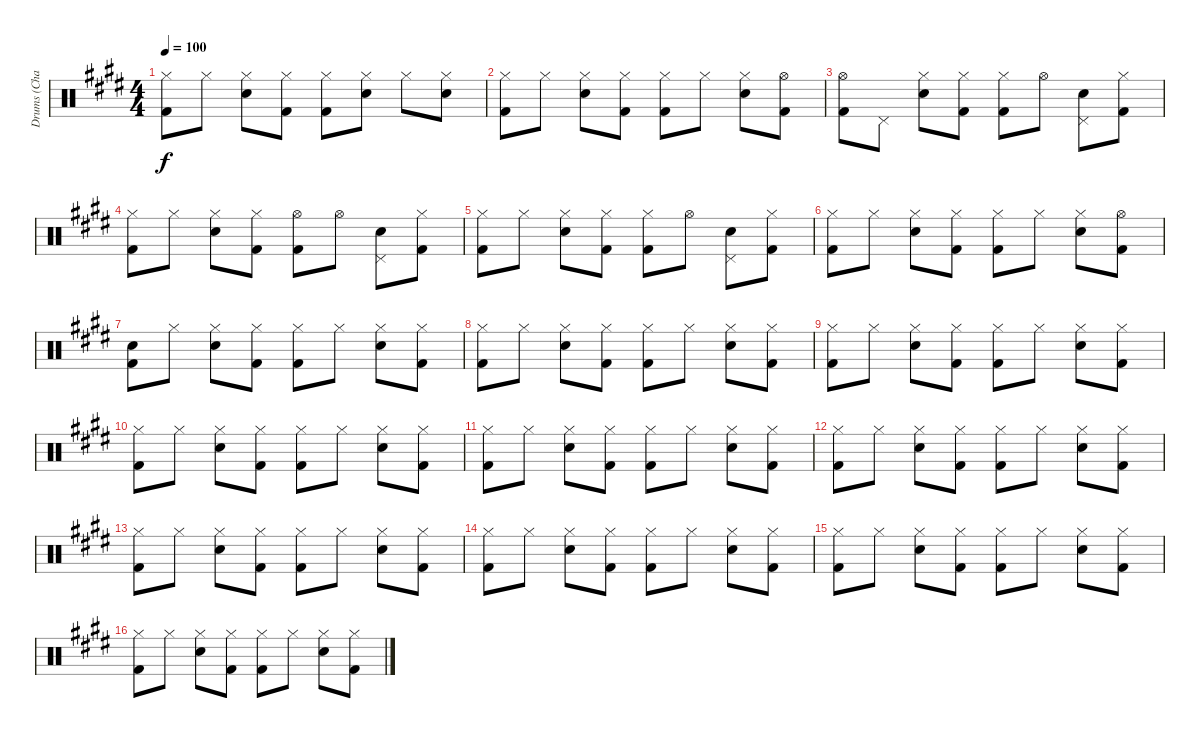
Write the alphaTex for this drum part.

\track ("Drums (Charlie)" "Drums (Cha") {instrument percussion}
\staff {score}
\articulation defaults
\ts (4 4)
\tempo 100
\clef neutral
\ks c#minor
("Hi-Hat (closed)" "Kick (hit) 2").8{dy f} "Hi-Hat (closed)".8 ("Hi-Hat (closed)" "Snare (hit) 2").8 ("Hi-Hat (closed)" "Kick (hit) 2").8 ("Hi-Hat (closed)" "Kick (hit) 2").8 ("Hi-Hat (closed)" "Snare (hit) 2").8 "Hi-Hat (closed)".8 ("Hi-Hat (closed)" "Snare (hit) 2").8 |
\ks e
("Hi-Hat (closed)" "Kick (hit) 2").8 "Hi-Hat (closed)".8 ("Hi-Hat (closed)" "Snare (hit) 2").8 ("Hi-Hat (closed)" "Kick (hit) 2").8 ("Hi-Hat (closed)" "Kick (hit) 2").8 "Hi-Hat (closed)".8 ("Hi-Hat (closed)" "Snare (hit) 2").8 ("Hi-Hat (open)" "Kick (hit) 2").8 |
\ks c#minor
("Hi-Hat (open)" "Kick (hit) 2").8 "Pedal Hi-Hat (hit)".8 ("Hi-Hat (closed)" "Snare (hit) 2").8 ("Hi-Hat (closed)" "Kick (hit) 2").8 ("Hi-Hat (closed)" "Kick (hit) 2").8 "Hi-Hat (open)".8 ("Pedal Hi-Hat (hit)" "Snare (hit) 2").8 ("Hi-Hat (closed)" "Kick (hit) 2").8 |
("Hi-Hat (closed)" "Kick (hit) 2").8 "Hi-Hat (closed)".8 ("Hi-Hat (closed)" "Snare (hit) 2").8 ("Hi-Hat (closed)" "Kick (hit) 2").8 ("Hi-Hat (open)" "Kick (hit) 2").8 "Hi-Hat (open)".8 ("Pedal Hi-Hat (hit)" "Snare (hit) 2").8 ("Hi-Hat (closed)" "Kick (hit) 2").8 |
\ks e
("Hi-Hat (closed)" "Kick (hit) 2").8 "Hi-Hat (closed)".8 ("Hi-Hat (closed)" "Snare (hit) 2").8 ("Hi-Hat (closed)" "Kick (hit) 2").8 ("Hi-Hat (closed)" "Kick (hit) 2").8 "Hi-Hat (open)".8 ("Pedal Hi-Hat (hit)" "Snare (hit) 2").8 ("Hi-Hat (closed)" "Kick (hit) 2").8 |
\ks c#minor
("Hi-Hat (closed)" "Kick (hit) 2").8 "Hi-Hat (closed)".8 ("Hi-Hat (closed)" "Snare (hit) 2").8 ("Hi-Hat (closed)" "Kick (hit) 2").8 ("Hi-Hat (closed)" "Kick (hit) 2").8 "Hi-Hat (closed)".8 ("Hi-Hat (closed)" "Snare (hit) 2").8 ("Hi-Hat (open)" "Kick (hit) 2").8 |
("Snare (hit)" "Kick (hit) 2").8 "Hi-Hat (closed)".8 ("Hi-Hat (closed)" "Snare (hit) 2").8 ("Hi-Hat (closed)" "Kick (hit) 2").8 ("Hi-Hat (closed)" "Kick (hit) 2").8 "Hi-Hat (closed)".8 ("Hi-Hat (closed)" "Snare (hit) 2").8 ("Hi-Hat (closed)" "Kick (hit) 2").8 |
\ks e
("Hi-Hat (closed)" "Kick (hit) 2").8 "Hi-Hat (closed)".8 ("Hi-Hat (closed)" "Snare (hit) 2").8 ("Hi-Hat (closed)" "Kick (hit) 2").8 ("Hi-Hat (closed)" "Kick (hit) 2").8 "Hi-Hat (closed)".8 ("Hi-Hat (closed)" "Snare (hit) 2").8 ("Hi-Hat (closed)" "Kick (hit) 2").8 |
\ks c#minor
("Hi-Hat (closed)" "Kick (hit) 2").8 "Hi-Hat (closed)".8 ("Hi-Hat (closed)" "Snare (hit) 2").8 ("Hi-Hat (closed)" "Kick (hit) 2").8 ("Hi-Hat (closed)" "Kick (hit) 2").8 "Hi-Hat (closed)".8 ("Hi-Hat (closed)" "Snare (hit) 2").8 ("Hi-Hat (closed)" "Kick (hit) 2").8 |
("Hi-Hat (closed)" "Kick (hit) 2").8 "Hi-Hat (closed)".8 ("Hi-Hat (closed)" "Snare (hit) 2").8 ("Hi-Hat (closed)" "Kick (hit) 2").8 ("Hi-Hat (closed)" "Kick (hit) 2").8 "Hi-Hat (closed)".8 ("Hi-Hat (closed)" "Snare (hit) 2").8 ("Hi-Hat (closed)" "Kick (hit) 2").8 |
\ks e
("Hi-Hat (closed)" "Kick (hit) 2").8 "Hi-Hat (closed)".8 ("Hi-Hat (closed)" "Snare (hit) 2").8 ("Hi-Hat (closed)" "Kick (hit) 2").8 ("Hi-Hat (closed)" "Kick (hit) 2").8 "Hi-Hat (closed)".8 ("Hi-Hat (closed)" "Snare (hit) 2").8 ("Hi-Hat (closed)" "Kick (hit) 2").8 |
\ks c#minor
("Hi-Hat (closed)" "Kick (hit) 2").8{volume 2} "Hi-Hat (closed)".8 ("Hi-Hat (closed)" "Snare (hit) 2").8 ("Hi-Hat (closed)" "Kick (hit) 2").8 ("Hi-Hat (closed)" "Kick (hit) 2").8 "Hi-Hat (closed)".8 ("Hi-Hat (closed)" "Snare (hit) 2").8 ("Hi-Hat (closed)" "Kick (hit) 2").8 |
("Hi-Hat (closed)" "Kick (hit) 2").8 "Hi-Hat (closed)".8 ("Hi-Hat (closed)" "Snare (hit) 2").8 ("Hi-Hat (closed)" "Kick (hit) 2").8 ("Hi-Hat (closed)" "Kick (hit) 2").8 "Hi-Hat (closed)".8 ("Hi-Hat (closed)" "Snare (hit) 2").8 ("Hi-Hat (closed)" "Kick (hit) 2").8 |
\ks e
("Hi-Hat (closed)" "Kick (hit) 2").8 "Hi-Hat (closed)".8 ("Hi-Hat (closed)" "Snare (hit) 2").8 ("Hi-Hat (closed)" "Kick (hit) 2").8 ("Hi-Hat (closed)" "Kick (hit) 2").8 "Hi-Hat (closed)".8 ("Hi-Hat (closed)" "Snare (hit) 2").8 ("Hi-Hat (closed)" "Kick (hit) 2").8 |
\ks c#minor
("Hi-Hat (closed)" "Kick (hit) 2").8 "Hi-Hat (closed)".8 ("Hi-Hat (closed)" "Snare (hit) 2").8 ("Hi-Hat (closed)" "Kick (hit) 2").8 ("Hi-Hat (closed)" "Kick (hit) 2").8 "Hi-Hat (closed)".8 ("Hi-Hat (closed)" "Snare (hit) 2").8 ("Hi-Hat (closed)" "Kick (hit) 2").8 |
("Hi-Hat (closed)" "Kick (hit) 2").8{volume 0} "Hi-Hat (closed)".8 ("Hi-Hat (closed)" "Snare (hit) 2").8 ("Hi-Hat (closed)" "Kick (hit) 2").8 ("Hi-Hat (closed)" "Kick (hit) 2").8 "Hi-Hat (closed)".8 ("Hi-Hat (closed)" "Snare (hit) 2").8 ("Hi-Hat (closed)" "Kick (hit) 2").8
